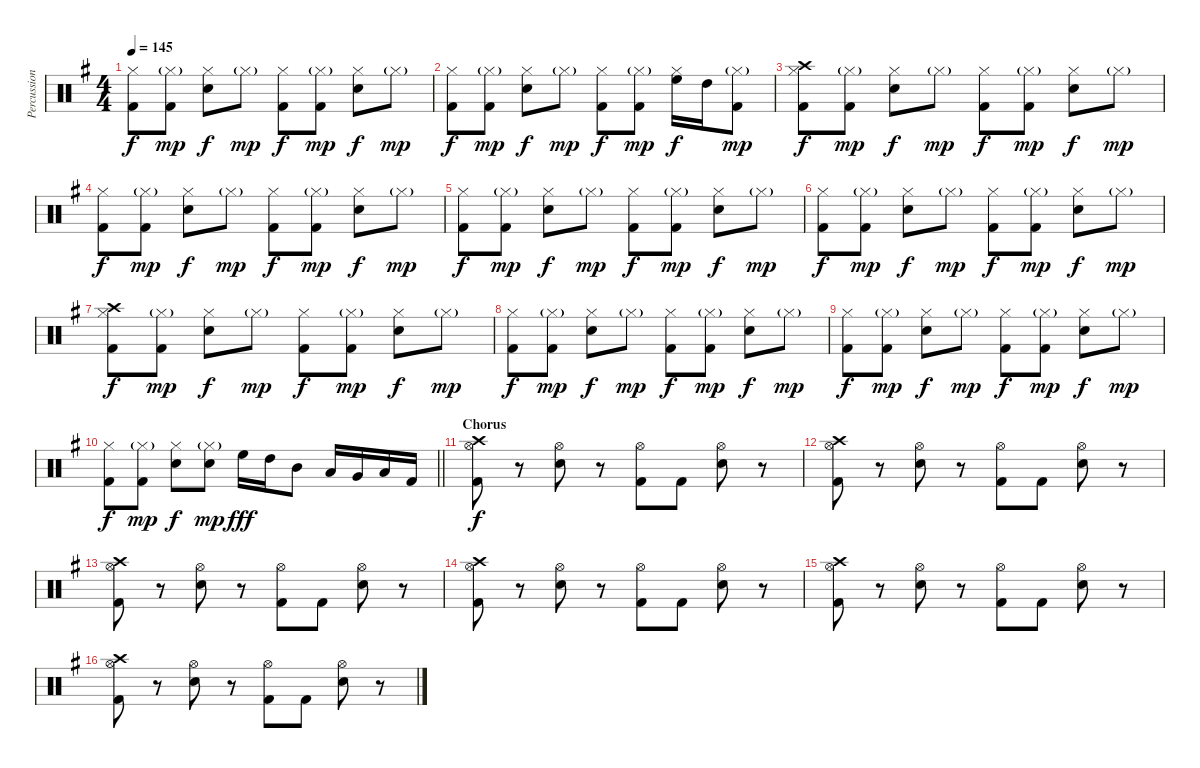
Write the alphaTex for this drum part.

\track ("Percussion" "Percussion") {instrument percussion}
\staff {score}
\articulation defaults
\ts (4 4)
\tempo 145
\clef neutral
\ks eminor
("Hi-Hat (closed)" "Kick (hit) 2").8{dy f} ("Hi-Hat (closed)"{g} "Kick (hit) 2").8{dy mp} ("Hi-Hat (closed)" "Electric Snare (hit)").8{dy f} "Hi-Hat (closed)"{g}.8{dy mp} ("Hi-Hat (closed)" "Kick (hit) 2").8{dy f} ("Hi-Hat (closed)"{g} "Kick (hit) 2").8{dy mp} ("Hi-Hat (closed)" "Electric Snare (hit)").8{dy f} "Hi-Hat (closed)"{g}.8{dy mp} |
("Hi-Hat (closed)" "Kick (hit) 2").8{dy f} ("Hi-Hat (closed)"{g} "Kick (hit) 2").8{dy mp} ("Hi-Hat (closed)" "Electric Snare (hit)").8{dy f} "Hi-Hat (closed)"{g}.8{dy mp} ("Hi-Hat (closed)" "Kick (hit) 2").8{dy f} ("Hi-Hat (closed)"{g} "Kick (hit) 2").8{dy mp} ("Hi-Hat (closed)" "High Floor Tom (hit)").16{dy f} "High Tom (hit)".16 ("Hi-Hat (closed)"{g} "Kick (hit) 2").8{dy mp} |
("Crash high (hit)" "Hi-Hat (closed)" "Kick (hit) 2").8{dy f} ("Hi-Hat (closed)"{g} "Kick (hit) 2").8{dy mp} ("Hi-Hat (closed)" "Electric Snare (hit)").8{dy f} "Hi-Hat (closed)"{g}.8{dy mp} ("Hi-Hat (closed)" "Kick (hit) 2").8{dy f} ("Hi-Hat (closed)"{g} "Kick (hit) 2").8{dy mp} ("Hi-Hat (closed)" "Electric Snare (hit)").8{dy f} "Hi-Hat (closed)"{g}.8{dy mp} |
("Hi-Hat (closed)" "Kick (hit) 2").8{dy f} ("Hi-Hat (closed)"{g} "Kick (hit) 2").8{dy mp} ("Hi-Hat (closed)" "Electric Snare (hit)").8{dy f} "Hi-Hat (closed)"{g}.8{dy mp} ("Hi-Hat (closed)" "Kick (hit) 2").8{dy f} ("Hi-Hat (closed)"{g} "Kick (hit) 2").8{dy mp} ("Hi-Hat (closed)" "Electric Snare (hit)").8{dy f} "Hi-Hat (closed)"{g}.8{dy mp} |
("Hi-Hat (closed)" "Kick (hit) 2").8{dy f} ("Hi-Hat (closed)"{g} "Kick (hit) 2").8{dy mp} ("Hi-Hat (closed)" "Electric Snare (hit)").8{dy f} "Hi-Hat (closed)"{g}.8{dy mp} ("Hi-Hat (closed)" "Kick (hit) 2").8{dy f} ("Hi-Hat (closed)"{g} "Kick (hit) 2").8{dy mp} ("Hi-Hat (closed)" "Electric Snare (hit)").8{dy f} "Hi-Hat (closed)"{g}.8{dy mp} |
("Hi-Hat (closed)" "Kick (hit) 2").8{dy f} ("Hi-Hat (closed)"{g} "Kick (hit) 2").8{dy mp} ("Hi-Hat (closed)" "Electric Snare (hit)").8{dy f} "Hi-Hat (closed)"{g}.8{dy mp} ("Hi-Hat (closed)" "Kick (hit) 2").8{dy f} ("Hi-Hat (closed)"{g} "Kick (hit) 2").8{dy mp} ("Hi-Hat (closed)" "Electric Snare (hit)").8{dy f} "Hi-Hat (closed)"{g}.8{dy mp} |
("Crash high (hit)" "Hi-Hat (closed)" "Kick (hit) 2").8{dy f} ("Hi-Hat (closed)"{g} "Kick (hit) 2").8{dy mp} ("Hi-Hat (closed)" "Electric Snare (hit)").8{dy f} "Hi-Hat (closed)"{g}.8{dy mp} ("Hi-Hat (closed)" "Kick (hit) 2").8{dy f} ("Hi-Hat (closed)"{g} "Kick (hit) 2").8{dy mp} ("Hi-Hat (closed)" "Electric Snare (hit)").8{dy f} "Hi-Hat (closed)"{g}.8{dy mp} |
("Hi-Hat (closed)" "Kick (hit) 2").8{dy f} ("Hi-Hat (closed)"{g} "Kick (hit) 2").8{dy mp} ("Hi-Hat (closed)" "Electric Snare (hit)").8{dy f} "Hi-Hat (closed)"{g}.8{dy mp} ("Hi-Hat (closed)" "Kick (hit) 2").8{dy f} ("Hi-Hat (closed)"{g} "Kick (hit) 2").8{dy mp} ("Hi-Hat (closed)" "Electric Snare (hit)").8{dy f} "Hi-Hat (closed)"{g}.8{dy mp} |
("Hi-Hat (closed)" "Kick (hit) 2").8{dy f} ("Hi-Hat (closed)"{g} "Kick (hit) 2").8{dy mp} ("Hi-Hat (closed)" "Electric Snare (hit)").8{dy f} "Hi-Hat (closed)"{g}.8{dy mp} ("Hi-Hat (closed)" "Kick (hit) 2").8{dy f} ("Hi-Hat (closed)"{g} "Kick (hit) 2").8{dy mp} ("Hi-Hat (closed)" "Electric Snare (hit)").8{dy f} "Hi-Hat (closed)"{g}.8{dy mp} |
\barLineRight lightlight
("Hi-Hat (closed)" "Kick (hit) 2").8{dy f} ("Hi-Hat (closed)"{g} "Kick (hit) 2").8{dy mp} ("Hi-Hat (closed)" "Electric Snare (hit)").8{dy f} ("Hi-Hat (closed)"{g} "Electric Snare (hit)").8{dy mp} "High Floor Tom (hit)".16{dy fff} "High Tom (hit)".16 "Mid Tom (hit)".8 "Low Tom (hit)".16 "Very Low Tom (hit)".16 "Low Floor Tom (hit)".16 "Kick (hit) 2".16 |
\section ("" "Chorus")
("Crash high (hit)" "Hi-Hat (open)" "Kick (hit) 2").8{dy f} r.8 ("Hi-Hat (open)" "Electric Snare (hit)").8 r.8 ("Hi-Hat (open)" "Kick (hit) 2").8 "Kick (hit) 2".8 ("Hi-Hat (open)" "Electric Snare (hit)").8 r.8 |
("Crash high (hit)" "Hi-Hat (open)" "Kick (hit) 2").8 r.8 ("Hi-Hat (open)" "Electric Snare (hit)").8 r.8 ("Hi-Hat (open)" "Kick (hit) 2").8 "Kick (hit) 2".8 ("Hi-Hat (open)" "Electric Snare (hit)").8 r.8 |
("Crash high (hit)" "Hi-Hat (open)" "Kick (hit) 2").8 r.8 ("Hi-Hat (open)" "Electric Snare (hit)").8 r.8 ("Hi-Hat (open)" "Kick (hit) 2").8 "Kick (hit) 2".8 ("Hi-Hat (open)" "Electric Snare (hit)").8 r.8 |
("Crash high (hit)" "Hi-Hat (open)" "Kick (hit) 2").8 r.8 ("Hi-Hat (open)" "Electric Snare (hit)").8 r.8 ("Hi-Hat (open)" "Kick (hit) 2").8 "Kick (hit) 2".8 ("Hi-Hat (open)" "Electric Snare (hit)").8 r.8 |
("Crash high (hit)" "Hi-Hat (open)" "Kick (hit) 2").8 r.8 ("Hi-Hat (open)" "Electric Snare (hit)").8 r.8 ("Hi-Hat (open)" "Kick (hit) 2").8 "Kick (hit) 2".8 ("Hi-Hat (open)" "Electric Snare (hit)").8 r.8 |
("Crash high (hit)" "Hi-Hat (open)" "Kick (hit) 2").8 r.8 ("Hi-Hat (open)" "Electric Snare (hit)").8 r.8 ("Hi-Hat (open)" "Kick (hit) 2").8 "Kick (hit) 2".8 ("Hi-Hat (open)" "Electric Snare (hit)").8 r.8
